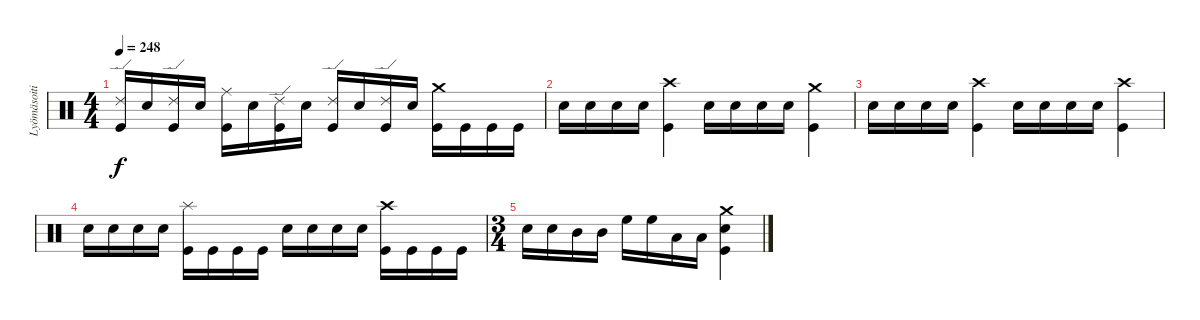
\track ("Lyömäsoitin" "Lyömäsoiti") {instrument percussion}
\staff {score}
\articulation defaults
\ts (4 4)
\tempo 248
\clef neutral
\ks c
("Ride (edge) 2" "Kick (hit)").16{dy f} "Snare (hit) 2".16 ("Ride (edge) 2" "Kick (hit)").16 "Snare (hit) 2".16 ("Ride (middle)" "Kick (hit)").16 "Snare (hit) 2".16 ("Ride (edge) 2" "Kick (hit)").16 "Snare (hit) 2".16 ("Ride (edge) 2" "Kick (hit)").16 "Snare (hit) 2".16 ("Ride (edge) 2" "Kick (hit)").16 "Snare (hit) 2".16 ("Crash medium (hit)" "Kick (hit)").16 "Kick (hit)".16 "Kick (hit)".16 "Kick (hit)".16 |
"Snare (hit) 2".16 "Snare (hit) 2".16 "Snare (hit) 2".16 "Snare (hit) 2".16 ("Crash high (hit)" "Kick (hit)").4 "Snare (hit) 2".16 "Snare (hit) 2".16 "Snare (hit) 2".16 "Snare (hit) 2".16 ("Crash medium (hit)" "Kick (hit)").4 |
"Snare (hit) 2".16 "Snare (hit) 2".16 "Snare (hit) 2".16 "Snare (hit) 2".16 ("Crash high (hit)" "Kick (hit)").4 "Snare (hit) 2".16 "Snare (hit) 2".16 "Snare (hit) 2".16 "Snare (hit) 2".16 ("Crash high (hit)" "Kick (hit)").4 |
"Snare (hit) 2".16 "Snare (hit) 2".16 "Snare (hit) 2".16 "Snare (hit) 2".16 ("Splash (hit)" "Kick (hit)").16 "Kick (hit)".16 "Kick (hit)".16 "Kick (hit)".16 "Snare (hit) 2".16 "Snare (hit) 2".16 "Snare (hit) 2".16 "Snare (hit) 2".16 ("Crash high (hit)" "Kick (hit)").16 "Kick (hit)".16 "Kick (hit)".16 "Kick (hit)".16 |
\ts (3 4)
"Snare (hit) 2".16 "Snare (hit) 2".16 "Mid Tom (hit)".16 "Mid Tom (hit)".16 "High Floor Tom (hit)".16 "High Floor Tom (hit)".16 "Low Tom (hit)".16 "Low Tom (hit)".16 ("Crash medium (hit)" "Snare (hit) 2" "Kick (hit)").4
